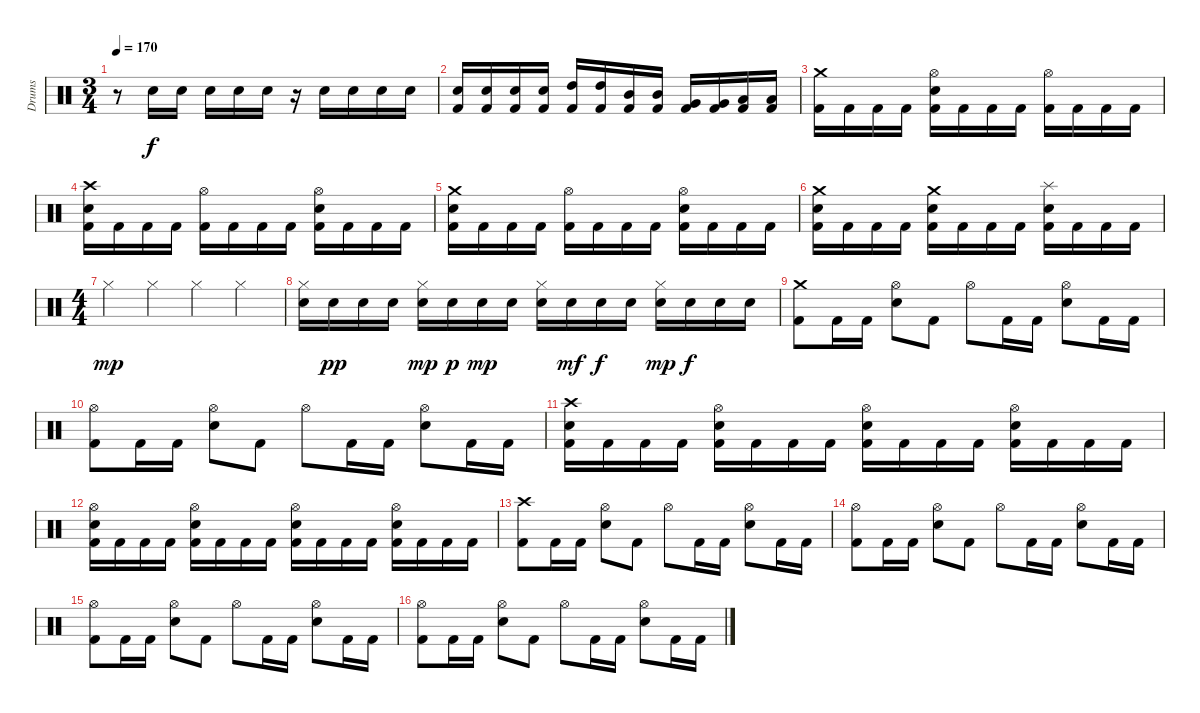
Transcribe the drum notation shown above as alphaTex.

\track ("Drums" "Drums") {instrument percussion}
\staff {score}
\articulation defaults
\ts (3 4)
\tempo 170
\clef neutral
\ks c
r.8{dy f} "Snare (hit) 2".16 "Snare (hit) 2".16 "Snare (hit) 2".16 "Snare (hit) 2".16 "Snare (hit) 2".16 r.16 "Snare (hit) 2".16 "Snare (hit) 2".16 "Snare (hit) 2".16 "Snare (hit) 2".16 |
("Kick (hit) 2" "Snare (hit) 2").16 ("Kick (hit) 2" "Snare (hit) 2").16 ("Kick (hit) 2" "Snare (hit) 2").16 ("Kick (hit) 2" "Snare (hit) 2").16 ("Kick (hit) 2" "High Tom (hit)").16 ("Kick (hit) 2" "High Tom (hit)").16 ("Kick (hit) 2" "Mid Tom (hit)").16 ("Kick (hit) 2" "Mid Tom (hit)").16 ("Kick (hit) 2" "Very Low Tom (hit)").16 ("Kick (hit) 2" "Very Low Tom (hit)").16 ("Kick (hit) 2" "Low Floor Tom (hit)").16 ("Kick (hit) 2" "Low Floor Tom (hit)").16 |
("Kick (hit) 2" "Crash medium (hit)").16 "Kick (hit) 2".16 "Kick (hit) 2".16 "Kick (hit) 2".16 ("Kick (hit) 2" "Snare (hit) 2" "Hi-Hat (open)").16 "Kick (hit) 2".16 "Kick (hit) 2".16 "Kick (hit) 2".16 ("Kick (hit) 2" "Hi-Hat (open)").16 "Kick (hit) 2".16 "Kick (hit) 2".16 "Kick (hit) 2".16 |
("Kick (hit) 2" "Snare (hit) 2" "Crash high (hit)").16 "Kick (hit) 2".16 "Kick (hit) 2".16 "Kick (hit) 2".16 ("Kick (hit) 2" "Hi-Hat (open)").16 "Kick (hit) 2".16 "Kick (hit) 2".16 "Kick (hit) 2".16 ("Kick (hit) 2" "Snare (hit) 2" "Hi-Hat (open)").16 "Kick (hit) 2".16 "Kick (hit) 2".16 "Kick (hit) 2".16 |
("Kick (hit) 2" "Snare (hit) 2" "Crash medium (hit)").16 "Kick (hit) 2".16 "Kick (hit) 2".16 "Kick (hit) 2".16 ("Kick (hit) 2" "Hi-Hat (open)").16 "Kick (hit) 2".16 "Kick (hit) 2".16 "Kick (hit) 2".16 ("Kick (hit) 2" "Snare (hit) 2" "Hi-Hat (open)").16 "Kick (hit) 2".16 "Kick (hit) 2".16 "Kick (hit) 2".16 |
("Kick (hit) 2" "Snare (hit) 2" "Crash medium (hit)").16 "Kick (hit) 2".16 "Kick (hit) 2".16 "Kick (hit) 2".16 ("Kick (hit) 2" "Snare (hit) 2" "Crash medium (hit)").16 "Kick (hit) 2".16 "Kick (hit) 2".16 "Kick (hit) 2".16 ("Kick (hit) 2" "Snare (hit) 2" "Splash (hit)").16 "Kick (hit) 2".16 "Kick (hit) 2".16 "Kick (hit) 2".16 |
\ts (4 4)
\section ("" "")
"Hi-Hat (closed)".4{dy mp} "Hi-Hat (closed)".4 "Hi-Hat (closed)".4 "Hi-Hat (closed)".4 |
("Snare (hit) 2" "Hi-Hat (closed)").16 "Snare (hit) 2".16{dy pp} "Snare (hit) 2".16 "Snare (hit) 2".16 ("Snare (hit) 2" "Hi-Hat (closed)").16{dy mp} "Snare (hit) 2".16{dy p} "Snare (hit) 2".16{dy mp} "Snare (hit) 2".16 ("Snare (hit) 2" "Hi-Hat (closed)").16 "Snare (hit) 2".16{dy mf} "Snare (hit) 2".16{dy f} "Snare (hit) 2".16 ("Snare (hit) 2" "Hi-Hat (closed)").16{dy mp} "Snare (hit) 2".16{dy f} "Snare (hit) 2".16 "Snare (hit) 2".16 |
("Kick (hit) 2" "Crash medium (hit)").8 "Kick (hit) 2".16 "Kick (hit) 2".16 ("Snare (hit) 2" "Hi-Hat (open)").8 "Kick (hit) 2".8 "Hi-Hat (open)".8 "Kick (hit) 2".16 "Kick (hit) 2".16 ("Snare (hit) 2" "Hi-Hat (open)").8 "Kick (hit) 2".16 "Kick (hit) 2".16 |
("Kick (hit) 2" "Hi-Hat (open)").8 "Kick (hit) 2".16 "Kick (hit) 2".16 ("Snare (hit) 2" "Hi-Hat (open)").8 "Kick (hit) 2".8 "Hi-Hat (open)".8 "Kick (hit) 2".16 "Kick (hit) 2".16 ("Snare (hit) 2" "Hi-Hat (open)").8 "Kick (hit) 2".16 "Kick (hit) 2".16 |
("Kick (hit) 2" "Snare (hit) 2" "Crash high (hit)").16 "Kick (hit) 2".16 "Kick (hit) 2".16 "Kick (hit) 2".16 ("Kick (hit) 2" "Snare (hit) 2" "Hi-Hat (open)").16 "Kick (hit) 2".16 "Kick (hit) 2".16 "Kick (hit) 2".16 ("Kick (hit) 2" "Snare (hit) 2" "Hi-Hat (open)").16 "Kick (hit) 2".16 "Kick (hit) 2".16 "Kick (hit) 2".16 ("Kick (hit) 2" "Snare (hit) 2" "Hi-Hat (open)").16 "Kick (hit) 2".16 "Kick (hit) 2".16 "Kick (hit) 2".16 |
("Kick (hit) 2" "Snare (hit) 2" "Hi-Hat (open)").16 "Kick (hit) 2".16 "Kick (hit) 2".16 "Kick (hit) 2".16 ("Kick (hit) 2" "Snare (hit) 2" "Hi-Hat (open)").16 "Kick (hit) 2".16 "Kick (hit) 2".16 "Kick (hit) 2".16 ("Kick (hit) 2" "Snare (hit) 2" "Hi-Hat (open)").16 "Kick (hit) 2".16 "Kick (hit) 2".16 "Kick (hit) 2".16 ("Kick (hit) 2" "Snare (hit) 2" "Hi-Hat (open)").16 "Kick (hit) 2".16 "Kick (hit) 2".16 "Kick (hit) 2".16 |
("Kick (hit) 2" "Crash high (hit)").8 "Kick (hit) 2".16 "Kick (hit) 2".16 ("Snare (hit) 2" "Hi-Hat (open)").8 "Kick (hit) 2".8 "Hi-Hat (open)".8 "Kick (hit) 2".16 "Kick (hit) 2".16 ("Snare (hit) 2" "Hi-Hat (open)").8 "Kick (hit) 2".16 "Kick (hit) 2".16 |
("Kick (hit) 2" "Hi-Hat (open)").8 "Kick (hit) 2".16 "Kick (hit) 2".16 ("Snare (hit) 2" "Hi-Hat (open)").8 "Kick (hit) 2".8 "Hi-Hat (open)".8 "Kick (hit) 2".16 "Kick (hit) 2".16 ("Snare (hit) 2" "Hi-Hat (open)").8 "Kick (hit) 2".16 "Kick (hit) 2".16 |
("Kick (hit) 2" "Hi-Hat (open)").8 "Kick (hit) 2".16 "Kick (hit) 2".16 ("Snare (hit) 2" "Hi-Hat (open)").8 "Kick (hit) 2".8 "Hi-Hat (open)".8 "Kick (hit) 2".16 "Kick (hit) 2".16 ("Snare (hit) 2" "Hi-Hat (open)").8 "Kick (hit) 2".16 "Kick (hit) 2".16 |
("Kick (hit) 2" "Hi-Hat (open)").8 "Kick (hit) 2".16 "Kick (hit) 2".16 ("Snare (hit) 2" "Hi-Hat (open)").8 "Kick (hit) 2".8 "Hi-Hat (open)".8 "Kick (hit) 2".16 "Kick (hit) 2".16 ("Snare (hit) 2" "Hi-Hat (open)").8 "Kick (hit) 2".16 "Kick (hit) 2".16
